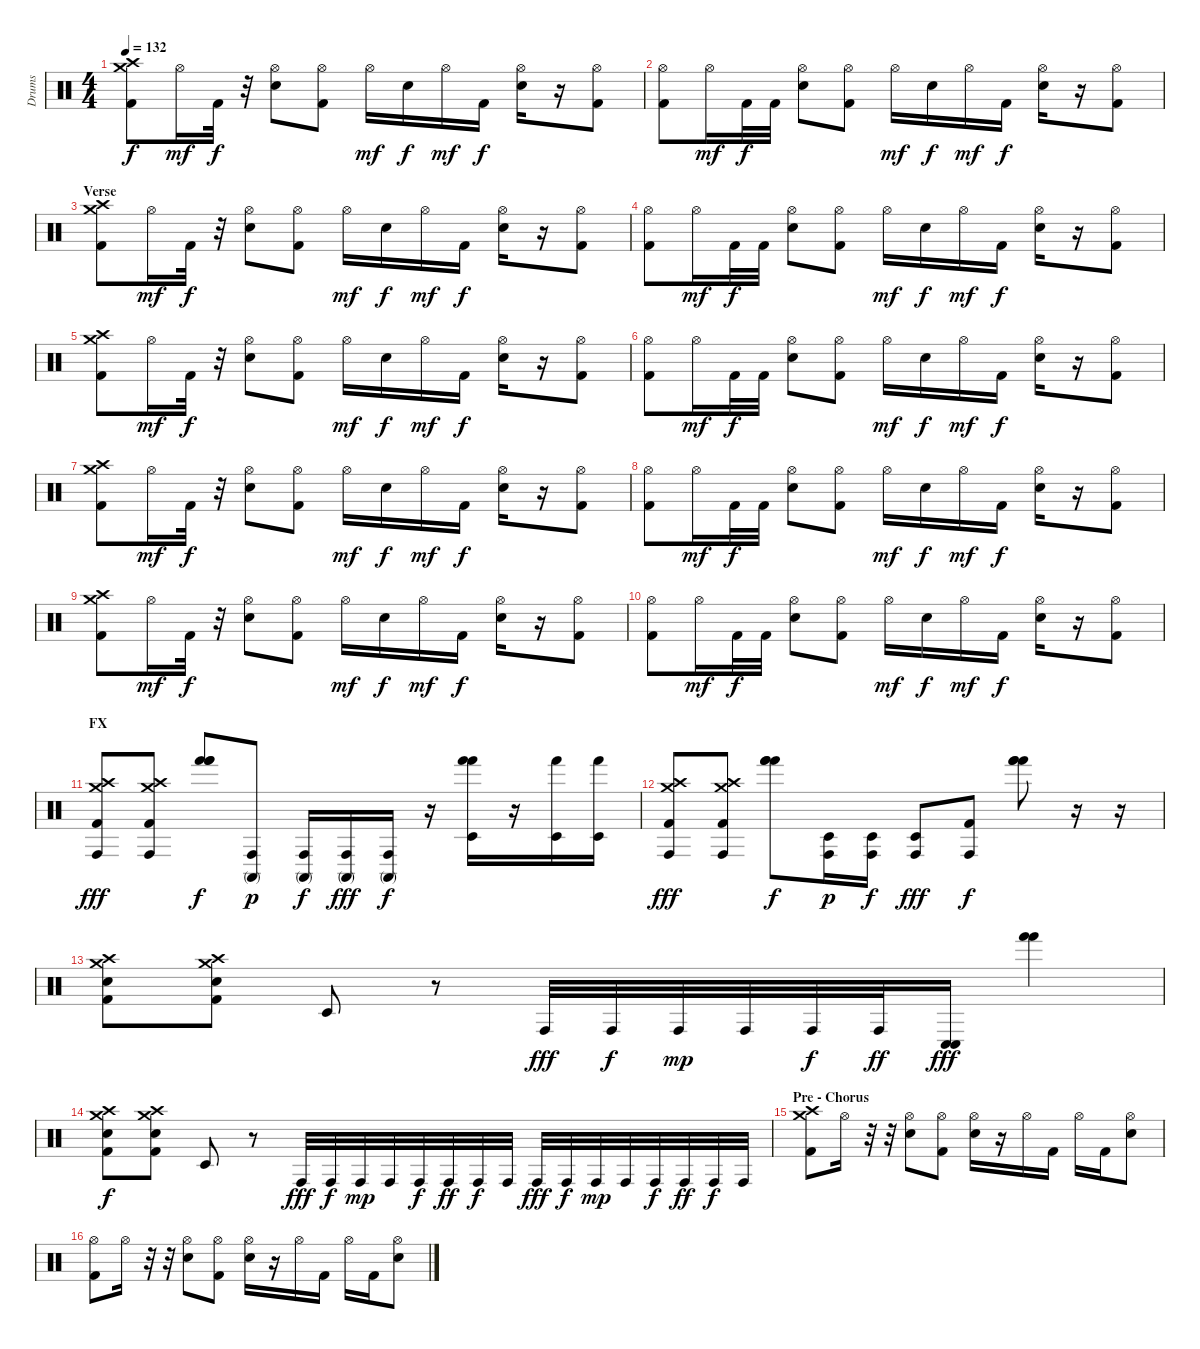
\track ("Drums" "Drums") {instrument percussion}
\staff {score}
\articulation defaults
\ts (4 4)
\tempo 132
\clef neutral
\ks c
("Crash high (hit)" "Crash medium (hit)" "Kick (hit) 2").8{dy f} "Hi-Hat (open)".16{dy mf} "Kick (hit) 2".32{dy f} r.32 ("Hi-Hat (open)" "Snare (hit) 2").8 ("Hi-Hat (open)" "Kick (hit) 2").8 "Hi-Hat (open)".16{dy mf} "Snare (hit) 2".16{dy f} "Hi-Hat (open)".16{dy mf} "Kick (hit) 2".16{dy f} ("Hi-Hat (open)" "Snare (hit) 2").16 r.16 ("Hi-Hat (open)" "Kick (hit) 2").8 |
("Hi-Hat (open)" "Kick (hit) 2").8 "Hi-Hat (open)".16{dy mf} "Kick (hit) 2".32{dy f} "Kick (hit) 2".32 ("Hi-Hat (open)" "Snare (hit) 2").8 ("Hi-Hat (open)" "Kick (hit) 2").8 "Hi-Hat (open)".16{dy mf} "Snare (hit) 2".16{dy f} "Hi-Hat (open)".16{dy mf} "Kick (hit) 2".16{dy f} ("Hi-Hat (open)" "Snare (hit) 2").16 r.16 ("Hi-Hat (open)" "Kick (hit) 2").8 |
\section ("" "Verse")
("Crash high (hit)" "Crash medium (hit)" "Kick (hit) 2").8 "Hi-Hat (open)".16{dy mf} "Kick (hit) 2".32{dy f} r.32 ("Hi-Hat (open)" "Snare (hit) 2").8 ("Hi-Hat (open)" "Kick (hit) 2").8 "Hi-Hat (open)".16{dy mf} "Snare (hit) 2".16{dy f} "Hi-Hat (open)".16{dy mf} "Kick (hit) 2".16{dy f} ("Hi-Hat (open)" "Snare (hit) 2").16 r.16 ("Hi-Hat (open)" "Kick (hit) 2").8 |
("Hi-Hat (open)" "Kick (hit) 2").8 "Hi-Hat (open)".16{dy mf} "Kick (hit) 2".32{dy f} "Kick (hit) 2".32 ("Hi-Hat (open)" "Snare (hit) 2").8 ("Hi-Hat (open)" "Kick (hit) 2").8 "Hi-Hat (open)".16{dy mf} "Snare (hit) 2".16{dy f} "Hi-Hat (open)".16{dy mf} "Kick (hit) 2".16{dy f} ("Hi-Hat (open)" "Snare (hit) 2").16 r.16 ("Hi-Hat (open)" "Kick (hit) 2").8 |
("Crash high (hit)" "Crash medium (hit)" "Kick (hit) 2").8 "Hi-Hat (open)".16{dy mf} "Kick (hit) 2".32{dy f} r.32 ("Hi-Hat (open)" "Snare (hit) 2").8 ("Hi-Hat (open)" "Kick (hit) 2").8 "Hi-Hat (open)".16{dy mf} "Snare (hit) 2".16{dy f} "Hi-Hat (open)".16{dy mf} "Kick (hit) 2".16{dy f} ("Hi-Hat (open)" "Snare (hit) 2").16 r.16 ("Hi-Hat (open)" "Kick (hit) 2").8 |
("Hi-Hat (open)" "Kick (hit) 2").8 "Hi-Hat (open)".16{dy mf} "Kick (hit) 2".32{dy f} "Kick (hit) 2".32 ("Hi-Hat (open)" "Snare (hit) 2").8 ("Hi-Hat (open)" "Kick (hit) 2").8 "Hi-Hat (open)".16{dy mf} "Snare (hit) 2".16{dy f} "Hi-Hat (open)".16{dy mf} "Kick (hit) 2".16{dy f} ("Hi-Hat (open)" "Snare (hit) 2").16 r.16 ("Hi-Hat (open)" "Kick (hit) 2").8 |
("Crash high (hit)" "Crash medium (hit)" "Kick (hit) 2").8 "Hi-Hat (open)".16{dy mf} "Kick (hit) 2".32{dy f} r.32 ("Hi-Hat (open)" "Snare (hit) 2").8 ("Hi-Hat (open)" "Kick (hit) 2").8 "Hi-Hat (open)".16{dy mf} "Snare (hit) 2".16{dy f} "Hi-Hat (open)".16{dy mf} "Kick (hit) 2".16{dy f} ("Hi-Hat (open)" "Snare (hit) 2").16 r.16 ("Hi-Hat (open)" "Kick (hit) 2").8 |
("Hi-Hat (open)" "Kick (hit) 2").8 "Hi-Hat (open)".16{dy mf} "Kick (hit) 2".32{dy f} "Kick (hit) 2".32 ("Hi-Hat (open)" "Snare (hit) 2").8 ("Hi-Hat (open)" "Kick (hit) 2").8 "Hi-Hat (open)".16{dy mf} "Snare (hit) 2".16{dy f} "Hi-Hat (open)".16{dy mf} "Kick (hit) 2".16{dy f} ("Hi-Hat (open)" "Snare (hit) 2").16 r.16 ("Hi-Hat (open)" "Kick (hit) 2").8 |
("Crash high (hit)" "Crash medium (hit)" "Kick (hit) 2").8 "Hi-Hat (open)".16{dy mf} "Kick (hit) 2".32{dy f} r.32 ("Hi-Hat (open)" "Snare (hit) 2").8 ("Hi-Hat (open)" "Kick (hit) 2").8 "Hi-Hat (open)".16{dy mf} "Snare (hit) 2".16{dy f} "Hi-Hat (open)".16{dy mf} "Kick (hit) 2".16{dy f} ("Hi-Hat (open)" "Snare (hit) 2").16 r.16 ("Hi-Hat (open)" "Kick (hit) 2").8 |
("Hi-Hat (open)" "Kick (hit) 2").8 "Hi-Hat (open)".16{dy mf} "Kick (hit) 2".32{dy f} "Kick (hit) 2".32 ("Hi-Hat (open)" "Snare (hit) 2").8 ("Hi-Hat (open)" "Kick (hit) 2").8 "Hi-Hat (open)".16{dy mf} "Snare (hit) 2".16{dy f} "Hi-Hat (open)".16{dy mf} "Kick (hit) 2".16{dy f} ("Hi-Hat (open)" "Snare (hit) 2").16 r.16 ("Hi-Hat (open)" "Kick (hit) 2").8 |
\section ("" "FX")
("Kick (hit) 2" "Crash high (hit)" "Crash medium (hit)" "Conga high (hit)").8{dy fff} ("Kick (hit) 2" "Crash medium (hit)" "Crash high (hit)" "Conga high (hit)").8 ("Hand (hit)" "Hand (hit)" "Hand (hit)").8{dy f} ("Conga high (mute)" "Conga high (hit)").8{dy p} ("Conga high (mute)" "Conga high (hit)").16{dy f} ("Conga high (mute)" "Conga high (hit)").16{dy fff} ("Conga high (mute)" "Conga high (hit)").16{dy f} r.16 ("Hand (hit)" "Hand (hit)" "Timbale low (hit)").16 r.16 ("Hand (hit)" "Timbale low (hit)").16 ("Hand (hit)" "Timbale low (hit)").16 |
("Kick (hit) 2" "Crash high (hit)" "Crash medium (hit)" "Conga high (hit)").8{dy fff} ("Kick (hit) 2" "Crash medium (hit)" "Crash high (hit)" "Conga high (hit)").8 ("Hand (hit)" "Hand (hit)" "Hand (hit)").8{dy f} ("Timbale low (hit)" "Conga high (hit)").16{dy p} ("Timbale low (hit)" "Conga high (hit)").16{dy f} ("Timbale low (hit)" "Conga high (hit)").8{dy fff} ("Kick (hit) 2" "Conga high (hit)").8{dy f} ("Hand (hit)" "Hand (hit)" "Hand (hit)").8 r.16 r.16 |
("Crash high (hit)" "Crash medium (hit)" "Snare (hit) 2" "Kick (hit) 2").8 ("Crash high (hit)" "Crash medium (hit)" "Snare (hit) 2" "Kick (hit) 2").8 "Timbale low (hit)".8 r.8 "Conga high (hit)".32{dy fff} "Conga high (hit)".32{dy f} "Conga high (hit)".32{dy mp} "Conga high (hit)".32 "Conga high (hit)".32{dy f} "Conga high (hit)".32{dy ff} ("Conga low (hit)" "Conga low (hit)").16{dy fff} ("Hand (hit)" "Hand (hit)").4 |
("Crash high (hit)" "Crash medium (hit)" "Snare (hit) 2" "Kick (hit) 2").8{dy f} ("Crash high (hit)" "Crash medium (hit)" "Snare (hit) 2" "Kick (hit) 2").8 "Timbale low (hit)".8 r.8 "Conga high (hit)".32{dy fff} "Conga high (hit)".32{dy f} "Conga high (hit)".32{dy mp} "Conga high (hit)".32 "Conga high (hit)".32{dy f} "Conga high (hit)".32{dy ff} "Conga high (hit)".32{dy f} "Conga high (hit)".32 "Conga high (hit)".32{dy fff} "Conga high (hit)".32{dy f} "Conga high (hit)".32{dy mp} "Conga high (hit)".32 "Conga high (hit)".32{dy f} "Conga high (hit)".32{dy ff} "Conga high (hit)".32{dy f} "Conga high (hit)".32 |
\section ("" "Pre - Chorus")
("Crash medium (hit)" "Crash high (hit)" "Kick (hit) 2").8 "Hi-Hat (open)".16 r.32 r.32 ("Hi-Hat (open)" "Snare (hit) 2").8 ("Hi-Hat (open)" "Kick (hit) 2").8 ("Hi-Hat (open)" "Snare (hit) 2").16 r.16 "Hi-Hat (open)".16 "Kick (hit) 2".16 "Hi-Hat (open)".16 "Kick (hit) 2".16 ("Hi-Hat (open)" "Snare (hit) 2").8 |
("Hi-Hat (open)" "Kick (hit) 2").8 "Hi-Hat (open)".16 r.32 r.32 ("Hi-Hat (open)" "Snare (hit) 2").8 ("Hi-Hat (open)" "Kick (hit) 2").8 ("Hi-Hat (open)" "Snare (hit) 2").16 r.16 "Hi-Hat (open)".16 "Kick (hit) 2".16 "Hi-Hat (open)".16 "Kick (hit) 2".16 ("Hi-Hat (open)" "Snare (hit) 2").8
